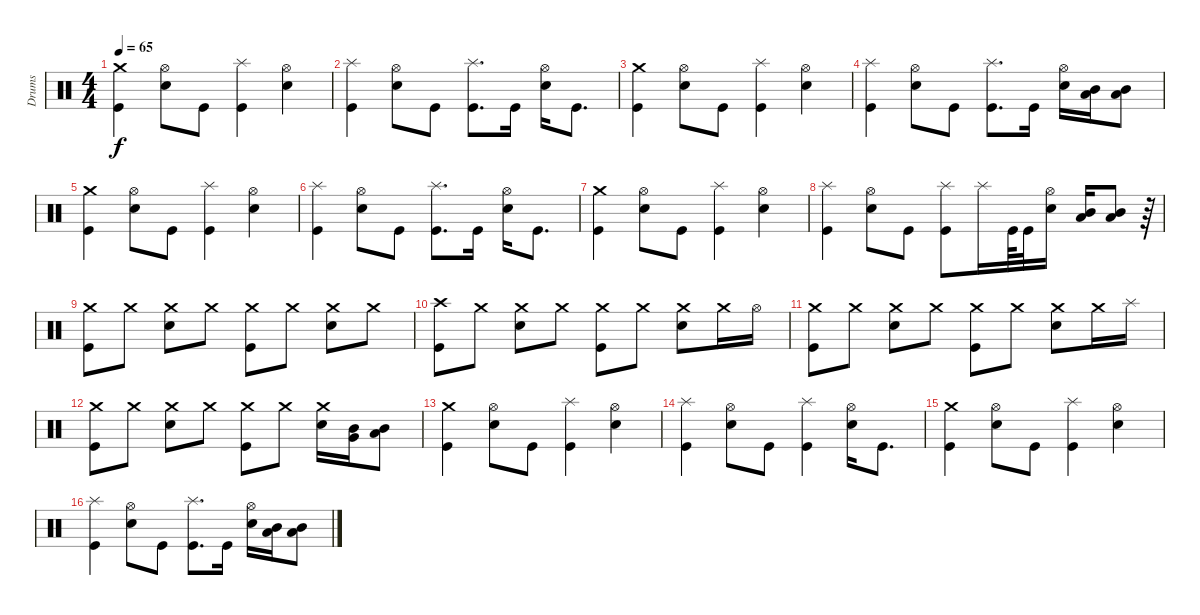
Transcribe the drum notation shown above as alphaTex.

\track ("Drums" "Drums") {instrument percussion}
\staff {score}
\articulation defaults
\ts (4 4)
\tempo 65
\clef neutral
\ks c
("Crash medium (hit)" "Kick (hit)").4{dy f} ("Hi-Hat (open)" "Snare (hit) 2").8 "Kick (hit)".8 ("Splash (hit)" "Kick (hit)").4 ("Hi-Hat (open)" "Snare (hit) 2").4 |
("Splash (hit)" "Kick (hit)").4 ("Hi-Hat (open)" "Snare (hit) 2").8 "Kick (hit)".8 ("Splash (hit)" "Kick (hit)").8{d} "Kick (hit)".16 ("Hi-Hat (open)" "Snare (hit) 2").16 "Kick (hit)".8{d} |
("Crash medium (hit)" "Kick (hit)").4 ("Hi-Hat (open)" "Snare (hit) 2").8 "Kick (hit)".8 ("Splash (hit)" "Kick (hit)").4 ("Hi-Hat (open)" "Snare (hit) 2").4 |
("Splash (hit)" "Kick (hit)").4 ("Hi-Hat (open)" "Snare (hit) 2").8 "Kick (hit)".8 ("Splash (hit)" "Kick (hit)").8{d} "Kick (hit)".16 ("Hi-Hat (open)" "Snare (hit) 2").16 ("Low Floor Tom (hit)" "Mid Tom (hit)").16 ("Low Floor Tom (hit)" "Mid Tom (hit)").8 |
("Crash medium (hit)" "Kick (hit)").4 ("Hi-Hat (open)" "Snare (hit) 2").8 "Kick (hit)".8 ("Splash (hit)" "Kick (hit)").4 ("Hi-Hat (open)" "Snare (hit) 2").4 |
("Splash (hit)" "Kick (hit)").4 ("Hi-Hat (open)" "Snare (hit) 2").8 "Kick (hit)".8 ("Splash (hit)" "Kick (hit)").8{d} "Kick (hit)".16 ("Hi-Hat (open)" "Snare (hit) 2").16 "Kick (hit)".8{d} |
("Crash medium (hit)" "Kick (hit)").4 ("Hi-Hat (open)" "Snare (hit) 2").8 "Kick (hit)".8 ("Splash (hit)" "Kick (hit)").4 ("Hi-Hat (open)" "Snare (hit) 2").4 |
("Splash (hit)" "Kick (hit)").4 ("Hi-Hat (open)" "Snare (hit) 2").8 "Kick (hit)".8 ("Splash (hit)" "Kick (hit)").8 "Splash (hit)".16 "Kick (hit)".64 "Kick (hit)".32 ("Hi-Hat (open)" "Snare (hit) 2").16 ("Low Floor Tom (hit)" "Mid Tom (hit)").16 ("Low Floor Tom (hit)" "Mid Tom (hit)").8 r.64 |
("Crash medium (hit)" "Kick (hit)").8 "Crash medium (hit)".8 ("Crash medium (hit)" "Snare (hit) 2").8 "Crash medium (hit)".8 ("Crash medium (hit)" "Kick (hit)").8 "Crash medium (hit)".8 ("Crash medium (hit)" "Snare (hit) 2").8 "Crash medium (hit)".8 |
("Crash high (hit)" "Kick (hit)").8 "Crash medium (hit)".8 ("Crash medium (hit)" "Snare (hit) 2").8 "Crash medium (hit)".8 ("Crash medium (hit)" "Kick (hit)").8 "Crash medium (hit)".8 ("Crash medium (hit)" "Snare (hit) 2").8 "Crash medium (hit)".16 "Hi-Hat (open)".16 |
("Crash medium (hit)" "Kick (hit)").8 "Crash medium (hit)".8 ("Crash medium (hit)" "Snare (hit) 2").8 "Crash medium (hit)".8 ("Crash medium (hit)" "Kick (hit)").8 "Crash medium (hit)".8 ("Crash medium (hit)" "Snare (hit) 2").8 "Crash medium (hit)".16 "Splash (hit)".16 |
("Crash medium (hit)" "Kick (hit)").8 "Crash medium (hit)".8 ("Crash medium (hit)" "Snare (hit) 2").8 "Crash medium (hit)".8 ("Crash medium (hit)" "Kick (hit)").8 "Crash medium (hit)".8 ("Crash medium (hit)" "Snare (hit) 2").16 ("Very Low Tom (hit)" "Mid Tom (hit)").16 ("Low Floor Tom (hit)" "Mid Tom (hit)").8 |
("Crash medium (hit)" "Kick (hit)").4 ("Hi-Hat (open)" "Snare (hit) 2").8 "Kick (hit)".8 ("Splash (hit)" "Kick (hit)").4 ("Hi-Hat (open)" "Snare (hit) 2").4 |
("Splash (hit)" "Kick (hit)").4 ("Hi-Hat (open)" "Snare (hit) 2").8 "Kick (hit)".8 ("Splash (hit)" "Kick (hit)").4 ("Hi-Hat (open)" "Snare (hit) 2").16 "Kick (hit)".8{d} |
("Crash medium (hit)" "Kick (hit)").4 ("Hi-Hat (open)" "Snare (hit) 2").8 "Kick (hit)".8 ("Splash (hit)" "Kick (hit)").4 ("Hi-Hat (open)" "Snare (hit) 2").4 |
("Splash (hit)" "Kick (hit)").4 ("Hi-Hat (open)" "Snare (hit) 2").8 "Kick (hit)".8 ("Splash (hit)" "Kick (hit)").8{d} "Kick (hit)".16 ("Hi-Hat (open)" "Snare (hit) 2").16 ("Low Floor Tom (hit)" "Mid Tom (hit)").16 ("Low Floor Tom (hit)" "Mid Tom (hit)").8
